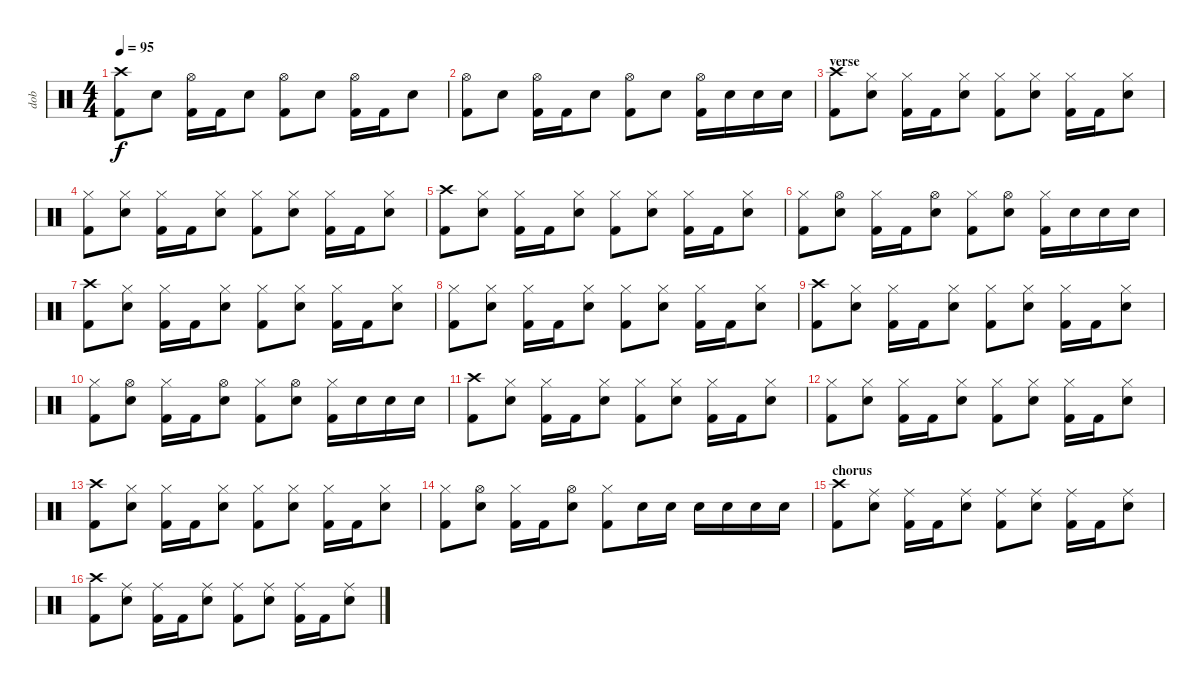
\track ("dob" "dob") {instrument percussion}
\staff {score}
\articulation defaults
\ts (4 4)
\tempo 95
\clef neutral
\ks c
("Crash high (hit)" "Kick (hit) 2").8{dy f} "Snare (hit) 2".8 ("Hi-Hat (open)" "Kick (hit) 2").16 "Kick (hit) 2".16 "Snare (hit) 2".8 ("Hi-Hat (open)" "Kick (hit) 2").8 "Snare (hit) 2".8 ("Hi-Hat (open)" "Kick (hit) 2").16 "Kick (hit) 2".16 "Snare (hit) 2".8 |
("Hi-Hat (open)" "Kick (hit) 2").8 "Snare (hit) 2".8 ("Hi-Hat (open)" "Kick (hit) 2").16 "Kick (hit) 2".16 "Snare (hit) 2".8 ("Hi-Hat (open)" "Kick (hit) 2").8 "Snare (hit) 2".8 ("Hi-Hat (open)" "Kick (hit) 2").16 "Snare (hit) 2".16 "Snare (hit) 2".16 "Snare (hit) 2".16 |
\section ("" "verse")
("Crash high (hit)" "Kick (hit) 2").8 ("Hi-Hat (closed)" "Snare (hit) 2").8 ("Hi-Hat (closed)" "Kick (hit) 2").16 "Kick (hit) 2".16 ("Hi-Hat (closed)" "Snare (hit) 2").8 ("Hi-Hat (closed)" "Kick (hit) 2").8 ("Hi-Hat (closed)" "Snare (hit) 2").8 ("Hi-Hat (closed)" "Kick (hit) 2").16 "Kick (hit) 2".16 ("Hi-Hat (closed)" "Snare (hit) 2").8 |
("Hi-Hat (closed)" "Kick (hit) 2").8 ("Hi-Hat (closed)" "Snare (hit) 2").8 ("Hi-Hat (closed)" "Kick (hit) 2").16 "Kick (hit) 2".16 ("Hi-Hat (closed)" "Snare (hit) 2").8 ("Hi-Hat (closed)" "Kick (hit) 2").8 ("Hi-Hat (closed)" "Snare (hit) 2").8 ("Hi-Hat (closed)" "Kick (hit) 2").16 "Kick (hit) 2".16 ("Hi-Hat (closed)" "Snare (hit) 2").8 |
("Crash high (hit)" "Kick (hit) 2").8 ("Hi-Hat (closed)" "Snare (hit) 2").8 ("Hi-Hat (closed)" "Kick (hit) 2").16 "Kick (hit) 2".16 ("Hi-Hat (closed)" "Snare (hit) 2").8 ("Hi-Hat (closed)" "Kick (hit) 2").8 ("Hi-Hat (closed)" "Snare (hit) 2").8 ("Hi-Hat (closed)" "Kick (hit) 2").16 "Kick (hit) 2".16 ("Hi-Hat (closed)" "Snare (hit) 2").8 |
("Hi-Hat (closed)" "Kick (hit) 2").8 ("Hi-Hat (open)" "Snare (hit) 2").8 ("Hi-Hat (closed)" "Kick (hit) 2").16 "Kick (hit) 2".16 ("Hi-Hat (open)" "Snare (hit) 2").8 ("Hi-Hat (closed)" "Kick (hit) 2").8 ("Hi-Hat (open)" "Snare (hit) 2").8 ("Hi-Hat (closed)" "Kick (hit) 2").16 "Snare (hit) 2".16 "Snare (hit) 2".16 "Snare (hit) 2".16 |
("Crash high (hit)" "Kick (hit) 2").8 ("Hi-Hat (closed)" "Snare (hit) 2").8 ("Hi-Hat (closed)" "Kick (hit) 2").16 "Kick (hit) 2".16 ("Hi-Hat (closed)" "Snare (hit) 2").8 ("Hi-Hat (closed)" "Kick (hit) 2").8 ("Hi-Hat (closed)" "Snare (hit) 2").8 ("Hi-Hat (closed)" "Kick (hit) 2").16 "Kick (hit) 2".16 ("Hi-Hat (closed)" "Snare (hit) 2").8 |
("Hi-Hat (closed)" "Kick (hit) 2").8 ("Hi-Hat (closed)" "Snare (hit) 2").8 ("Hi-Hat (closed)" "Kick (hit) 2").16 "Kick (hit) 2".16 ("Hi-Hat (closed)" "Snare (hit) 2").8 ("Hi-Hat (closed)" "Kick (hit) 2").8 ("Hi-Hat (closed)" "Snare (hit) 2").8 ("Hi-Hat (closed)" "Kick (hit) 2").16 "Kick (hit) 2".16 ("Hi-Hat (closed)" "Snare (hit) 2").8 |
("Crash high (hit)" "Kick (hit) 2").8 ("Hi-Hat (closed)" "Snare (hit) 2").8 ("Hi-Hat (closed)" "Kick (hit) 2").16 "Kick (hit) 2".16 ("Hi-Hat (closed)" "Snare (hit) 2").8 ("Hi-Hat (closed)" "Kick (hit) 2").8 ("Hi-Hat (closed)" "Snare (hit) 2").8 ("Hi-Hat (closed)" "Kick (hit) 2").16 "Kick (hit) 2".16 ("Hi-Hat (closed)" "Snare (hit) 2").8 |
("Hi-Hat (closed)" "Kick (hit) 2").8 ("Hi-Hat (open)" "Snare (hit) 2").8 ("Hi-Hat (closed)" "Kick (hit) 2").16 "Kick (hit) 2".16 ("Hi-Hat (open)" "Snare (hit) 2").8 ("Hi-Hat (closed)" "Kick (hit) 2").8 ("Hi-Hat (open)" "Snare (hit) 2").8 ("Hi-Hat (closed)" "Kick (hit) 2").16 "Snare (hit) 2".16 "Snare (hit) 2".16 "Snare (hit) 2".16 |
("Crash high (hit)" "Kick (hit) 2").8 ("Hi-Hat (closed)" "Snare (hit) 2").8 ("Hi-Hat (closed)" "Kick (hit) 2").16 "Kick (hit) 2".16 ("Hi-Hat (closed)" "Snare (hit) 2").8 ("Hi-Hat (closed)" "Kick (hit) 2").8 ("Hi-Hat (closed)" "Snare (hit) 2").8 ("Hi-Hat (closed)" "Kick (hit) 2").16 "Kick (hit) 2".16 ("Hi-Hat (closed)" "Snare (hit) 2").8 |
("Hi-Hat (closed)" "Kick (hit) 2").8 ("Hi-Hat (closed)" "Snare (hit) 2").8 ("Hi-Hat (closed)" "Kick (hit) 2").16 "Kick (hit) 2".16 ("Hi-Hat (closed)" "Snare (hit) 2").8 ("Hi-Hat (closed)" "Kick (hit) 2").8 ("Hi-Hat (closed)" "Snare (hit) 2").8 ("Hi-Hat (closed)" "Kick (hit) 2").16 "Kick (hit) 2".16 ("Hi-Hat (closed)" "Snare (hit) 2").8 |
("Crash high (hit)" "Kick (hit) 2").8 ("Hi-Hat (closed)" "Snare (hit) 2").8 ("Hi-Hat (closed)" "Kick (hit) 2").16 "Kick (hit) 2".16 ("Hi-Hat (closed)" "Snare (hit) 2").8 ("Hi-Hat (closed)" "Kick (hit) 2").8 ("Hi-Hat (closed)" "Snare (hit) 2").8 ("Hi-Hat (closed)" "Kick (hit) 2").16 "Kick (hit) 2".16 ("Hi-Hat (closed)" "Snare (hit) 2").8 |
("Hi-Hat (closed)" "Kick (hit) 2").8 ("Hi-Hat (open)" "Snare (hit) 2").8 ("Hi-Hat (closed)" "Kick (hit) 2").16 "Kick (hit) 2".16 ("Hi-Hat (open)" "Snare (hit) 2").8 ("Hi-Hat (closed)" "Kick (hit) 2").8 "Snare (hit) 2".16 "Snare (hit) 2".16 "Snare (hit) 2".16 "Snare (hit) 2".16 "Snare (hit) 2".16 "Snare (hit) 2".16 |
\section ("" "chorus")
("Crash high (hit)" "Kick (hit) 2").8 ("Ride (middle)" "Snare (hit) 2").8 ("Ride (middle)" "Kick (hit) 2").16 "Kick (hit) 2".16 ("Ride (middle)" "Snare (hit) 2").8 ("Ride (middle)" "Kick (hit) 2").8 ("Ride (middle)" "Snare (hit) 2").8 ("Ride (middle)" "Kick (hit) 2").16 "Kick (hit) 2".16 ("Ride (middle)" "Snare (hit) 2").8 |
("Crash high (hit)" "Kick (hit) 2").8 ("Ride (middle)" "Snare (hit) 2").8 ("Ride (middle)" "Kick (hit) 2").16 "Kick (hit) 2".16 ("Ride (middle)" "Snare (hit) 2").8 ("Ride (middle)" "Kick (hit) 2").8 ("Ride (middle)" "Snare (hit) 2").8 ("Ride (middle)" "Kick (hit) 2").16 "Kick (hit) 2".16 ("Ride (middle)" "Snare (hit) 2").8
